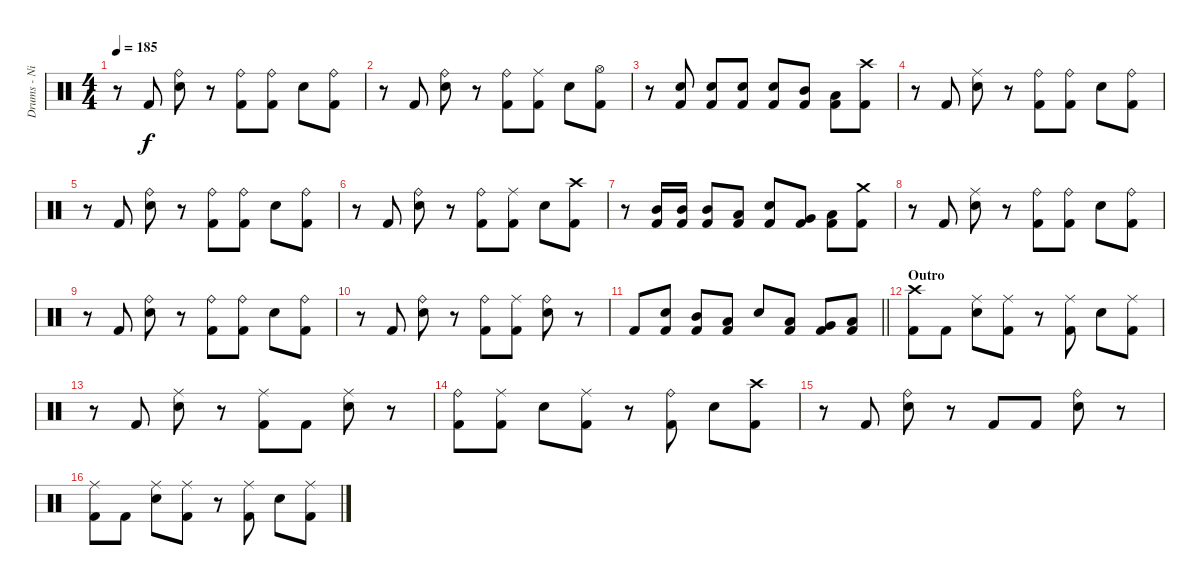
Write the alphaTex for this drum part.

\track ("Drums - Nicko" "Drums - Ni") {instrument percussion}
\staff {score}
\articulation defaults
\ts (4 4)
\tempo 185
\clef neutral
\ks c
r.8{dy f} "Kick (hit) 2".8 ("Ride (bell)" "Snare (hit) 2").8 r.8 ("Ride (bell)" "Kick (hit) 2").8 ("Ride (bell)" "Kick (hit) 2").8 "Snare (hit) 2".8 ("Ride (bell)" "Kick (hit) 2").8 |
r.8 "Kick (hit) 2".8 ("Ride (bell)" "Snare (hit) 2").8 r.8 ("Ride (bell)" "Kick (hit) 2").8 ("Ride (middle)" "Kick (hit) 2").8 "Snare (hit) 2".8 ("Hi-Hat (open)" "Kick (hit) 2").8 |
r.8 ("Snare (hit) 2" "Kick (hit) 2").8 ("Snare (hit) 2" "Kick (hit) 2").8 ("Snare (hit) 2" "Kick (hit) 2").8 ("Snare (hit) 2" "Kick (hit) 2").8 ("Mid Tom (hit)" "Kick (hit) 2").8 ("Low Tom (hit)" "Kick (hit) 2").8 ("Crash high (hit)" "Kick (hit) 2").8 |
r.8 "Kick (hit) 2".8 ("Ride (middle)" "Snare (hit) 2").8 r.8 ("Ride (bell)" "Kick (hit) 2").8 ("Ride (bell)" "Kick (hit) 2").8 "Snare (hit) 2".8 ("Ride (bell)" "Kick (hit) 2").8 |
r.8 "Kick (hit) 2".8 ("Ride (bell)" "Snare (hit) 2").8 r.8 ("Ride (bell)" "Kick (hit) 2").8 ("Ride (bell)" "Kick (hit) 2").8 "Snare (hit) 2".8 ("Ride (bell)" "Kick (hit) 2").8 |
r.8 "Kick (hit) 2".8 ("Ride (bell)" "Snare (hit) 2").8 r.8 ("Ride (bell)" "Kick (hit) 2").8 ("Ride (middle)" "Kick (hit) 2").8 "Snare (hit) 2".8 ("Crash high (hit)" "Kick (hit) 2").8 |
r.8 ("Mid Tom (hit)" "Kick (hit) 2").16 ("Mid Tom (hit)" "Kick (hit) 2").16 ("Mid Tom (hit)" "Kick (hit) 2").8 ("Low Tom (hit)" "Kick (hit) 2").8 ("Snare (hit) 2" "Kick (hit) 2").8 ("Very Low Tom (hit)" "Kick (hit) 2").8 ("Low Floor Tom (hit)" "Kick (hit) 2").8 ("Crash medium (hit)" "Kick (hit) 2").8 |
r.8 "Kick (hit) 2".8 ("Ride (middle)" "Snare (hit) 2").8 r.8 ("Ride (bell)" "Kick (hit) 2").8 ("Ride (bell)" "Kick (hit) 2").8 "Snare (hit) 2".8 ("Ride (bell)" "Kick (hit) 2").8 |
r.8 "Kick (hit) 2".8 ("Ride (bell)" "Snare (hit) 2").8 r.8 ("Ride (bell)" "Kick (hit) 2").8 ("Ride (bell)" "Kick (hit) 2").8 "Snare (hit) 2".8 ("Ride (bell)" "Kick (hit) 2").8 |
r.8 "Kick (hit) 2".8 ("Ride (bell)" "Snare (hit) 2").8 r.8 ("Ride (bell)" "Kick (hit) 2").8 ("Ride (middle)" "Kick (hit) 2").8 ("Ride (bell)" "Snare (hit) 2").8 r.8 |
\barLineRight lightlight "Kick (hit) 2".8
("Snare (hit) 2" "Kick (hit) 2").8 ("Mid Tom (hit)" "Kick (hit) 2").8 ("Low Tom (hit)" "Kick (hit) 2").8 "Snare (hit) 2".8 ("Low Tom (hit)" "Kick (hit) 2").8 ("Very Low Tom (hit)" "Kick (hit) 2").8 ("Low Floor Tom (hit)" "Kick (hit) 2").8 |
\section ("" "Outro")
("Crash high (hit)" "Kick (hit) 2").8 "Kick (hit) 2".8 ("Ride (middle)" "Snare (hit) 2").8 ("Ride (middle)" "Kick (hit) 2").8 r.8 ("Ride (middle)" "Kick (hit) 2").8 "Snare (hit) 2".8 ("Ride (middle)" "Kick (hit) 2").8 |
r.8 "Kick (hit) 2".8 ("Ride (middle)" "Snare (hit) 2").8 r.8 ("Ride (middle)" "Kick (hit) 2").8 "Kick (hit) 2".8 ("Ride (middle)" "Snare (hit) 2").8 r.8 |
("Ride (bell)" "Kick (hit) 2").8 ("Ride (middle)" "Kick (hit) 2").8 "Snare (hit) 2".8 ("Ride (middle)" "Kick (hit) 2").8 r.8 ("Ride (bell)" "Kick (hit) 2").8 "Snare (hit) 2".8 ("Crash high (hit)" "Kick (hit) 2").8 |
r.8 "Kick (hit) 2".8 ("Ride (bell)" "Snare (hit) 2").8 r.8 "Kick (hit) 2".8 "Kick (hit) 2".8 ("Ride (bell)" "Snare (hit) 2").8 r.8 |
("Ride (middle)" "Kick (hit) 2").8 "Kick (hit) 2".8 ("Ride (middle)" "Snare (hit) 2").8 ("Ride (middle)" "Kick (hit) 2").8 r.8 ("Ride (middle)" "Kick (hit) 2").8 "Snare (hit) 2".8 ("Ride (middle)" "Kick (hit) 2").8
